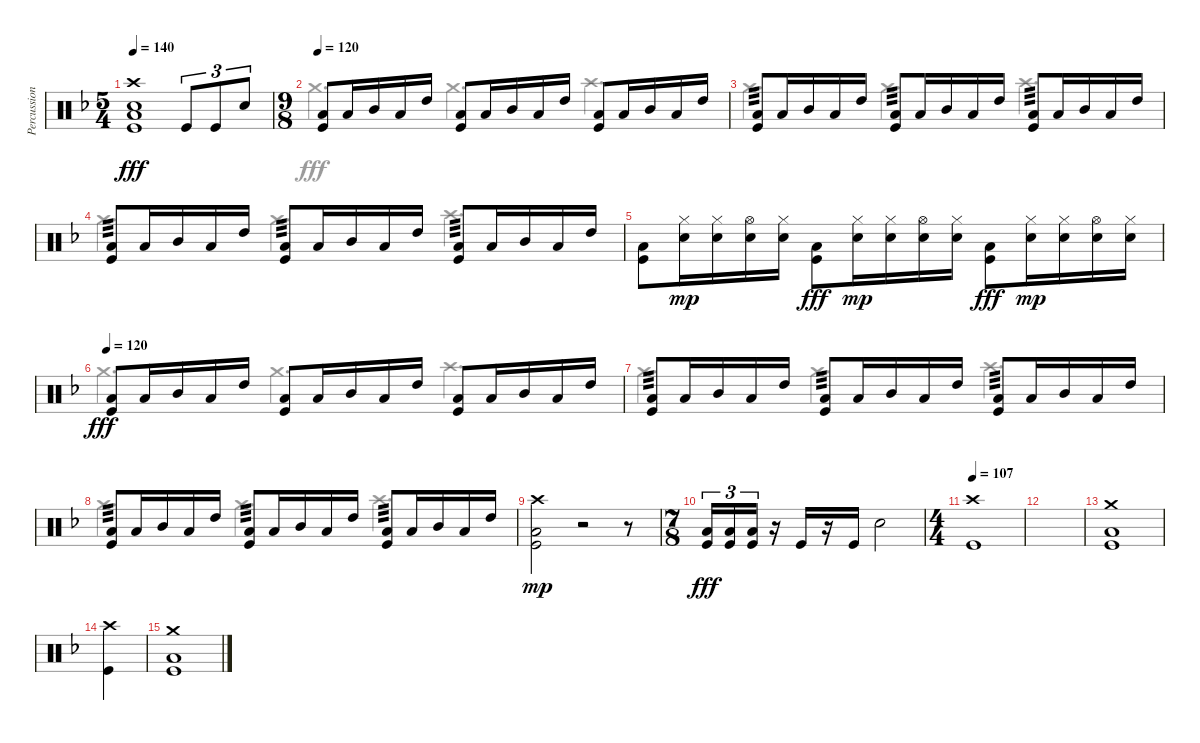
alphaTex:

\track ("Percussion" "Percussion") {instrument percussion}
\staff {score}
\articulation defaults
\voice
\ts (5 4)
\tempo 140
\clef neutral
\ks dminor
("Crash high (hit)" "Electric Snare (hit)" "Low Floor Tom (hit)" "Kick (hit)").1{dy fff} "Kick (hit)".8{tu (3 2)} "Kick (hit)".8{tu (3 2)} "Electric Snare (hit)".8{tu (3 2)} |
\ts (9 8)
\tempo 120
("Low Floor Tom (hit)" "Kick (hit)").8 "Low Tom (hit)".16 "Mid Tom (hit)".16 "Low Tom (hit)".16 "High Tom (hit)".16 ("Low Floor Tom (hit)" "Kick (hit)").8 "Low Tom (hit)".16 "Mid Tom (hit)".16 "Low Tom (hit)".16 "High Tom (hit)".16 ("Low Floor Tom (hit)" "Kick (hit)").8 "Low Tom (hit)".16 "Mid Tom (hit)".16 "Low Tom (hit)".16 "High Tom (hit)".16 |
("Low Floor Tom (hit)" "Kick (hit)").8{tp 3} "Low Tom (hit)".16 "Mid Tom (hit)".16 "Low Tom (hit)".16 "High Tom (hit)".16 ("Low Floor Tom (hit)" "Kick (hit)").8{tp 3} "Low Tom (hit)".16 "Mid Tom (hit)".16 "Low Tom (hit)".16 "High Tom (hit)".16 ("Low Floor Tom (hit)" "Kick (hit)").8{tp 3} "Low Tom (hit)".16 "Mid Tom (hit)".16 "Low Tom (hit)".16 "High Tom (hit)".16 |
("Low Floor Tom (hit)" "Kick (hit)").8{tp 3} "Low Tom (hit)".16 "Mid Tom (hit)".16 "Low Tom (hit)".16 "High Tom (hit)".16 ("Low Floor Tom (hit)" "Kick (hit)").8{tp 3} "Low Tom (hit)".16 "Mid Tom (hit)".16 "Low Tom (hit)".16 "High Tom (hit)".16 ("Low Floor Tom (hit)" "Kick (hit)").8{tp 3} "Low Tom (hit)".16 "Mid Tom (hit)".16 "Low Tom (hit)".16 "High Tom (hit)".16 |
("Low Floor Tom (hit)" "Kick (hit)").8 ("Hi-Hat (closed)" "Electric Snare (hit)").16{dy mp} ("Hi-Hat (closed)" "Electric Snare (hit)").16 ("Hi-Hat (open)" "Electric Snare (hit)").16 ("Hi-Hat (closed)" "Electric Snare (hit)").16 ("Low Floor Tom (hit)" "Kick (hit)").8{dy fff} ("Hi-Hat (closed)" "Electric Snare (hit)").16{dy mp} ("Hi-Hat (closed)" "Electric Snare (hit)").16 ("Hi-Hat (open)" "Electric Snare (hit)").16 ("Hi-Hat (closed)" "Electric Snare (hit)").16 ("Low Floor Tom (hit)" "Kick (hit)").8{dy fff} ("Hi-Hat (closed)" "Electric Snare (hit)").16{dy mp} ("Hi-Hat (closed)" "Electric Snare (hit)").16 ("Hi-Hat (open)" "Electric Snare (hit)").16 ("Hi-Hat (closed)" "Electric Snare (hit)").16 |
\tempo 120
("Low Floor Tom (hit)" "Kick (hit)").8{dy fff} "Low Tom (hit)".16 "Mid Tom (hit)".16 "Low Tom (hit)".16 "High Tom (hit)".16 ("Low Floor Tom (hit)" "Kick (hit)").8 "Low Tom (hit)".16 "Mid Tom (hit)".16 "Low Tom (hit)".16 "High Tom (hit)".16 ("Low Floor Tom (hit)" "Kick (hit)").8 "Low Tom (hit)".16 "Mid Tom (hit)".16 "Low Tom (hit)".16 "High Tom (hit)".16 |
("Low Floor Tom (hit)" "Kick (hit)").8{tp 3} "Low Tom (hit)".16 "Mid Tom (hit)".16 "Low Tom (hit)".16 "High Tom (hit)".16 ("Low Floor Tom (hit)" "Kick (hit)").8{tp 3} "Low Tom (hit)".16 "Mid Tom (hit)".16 "Low Tom (hit)".16 "High Tom (hit)".16 ("Low Floor Tom (hit)" "Kick (hit)").8{tp 3} "Low Tom (hit)".16 "Mid Tom (hit)".16 "Low Tom (hit)".16 "High Tom (hit)".16 |
("Low Floor Tom (hit)" "Kick (hit)").8{tp 3} "Low Tom (hit)".16 "Mid Tom (hit)".16 "Low Tom (hit)".16 "High Tom (hit)".16 ("Low Floor Tom (hit)" "Kick (hit)").8{tp 3} "Low Tom (hit)".16 "Mid Tom (hit)".16 "Low Tom (hit)".16 "High Tom (hit)".16 ("Low Floor Tom (hit)" "Kick (hit)").8{tp 3} "Low Tom (hit)".16 "Mid Tom (hit)".16 "Low Tom (hit)".16 "High Tom (hit)".16 |
("Crash high (hit)" "Low Floor Tom (hit)" "Kick (hit)").2{dy mp} r.2 r.8 |
\ts (7 8)
("Low Floor Tom (hit)" "Kick (hit)").16{tu (3 2) dy fff} ("Low Floor Tom (hit)" "Kick (hit)").16{tu (3 2)} ("Low Floor Tom (hit)" "Kick (hit)").16{tu (3 2)} r.16 "Kick (hit)".16 r.16 "Kick (hit)".16 "Electric Snare (hit)".2 |
\ts (4 4)
\tempo 107
("Crash high (hit)" "Kick (hit)").1 |
|
("Crash medium (hit)" "Low Floor Tom (hit)" "Kick (hit)").1 |
("Crash high (hit)" "Kick (hit)").4 |
("Crash medium (hit)" "Low Floor Tom (hit)" "Kick (hit)").1 |
\voice
\clef neutral
\ottava regular
\simile none
\ks dminor
|
"Crash medium (hit)".4{d} "Crash medium (hit)".4{d} "Crash high (hit)".4{d} |
"Crash medium (hit)".4{d} "Crash medium (hit)".4{d} "Crash high (hit)".4{d} |
"Crash medium (hit)".4{d} "Crash medium (hit)".4{d} "Crash high (hit)".4{d} |
|
"Crash medium (hit)".4{d} "Crash medium (hit)".4{d} "Crash high (hit)".4{d} |
"Crash medium (hit)".4{d} "Crash medium (hit)".4{d} "Crash high (hit)".4{d} |
"Crash medium (hit)".4{d} "Crash medium (hit)".4{d} "Crash high (hit)".4{d} |
|
|
|
|
|
|
|
